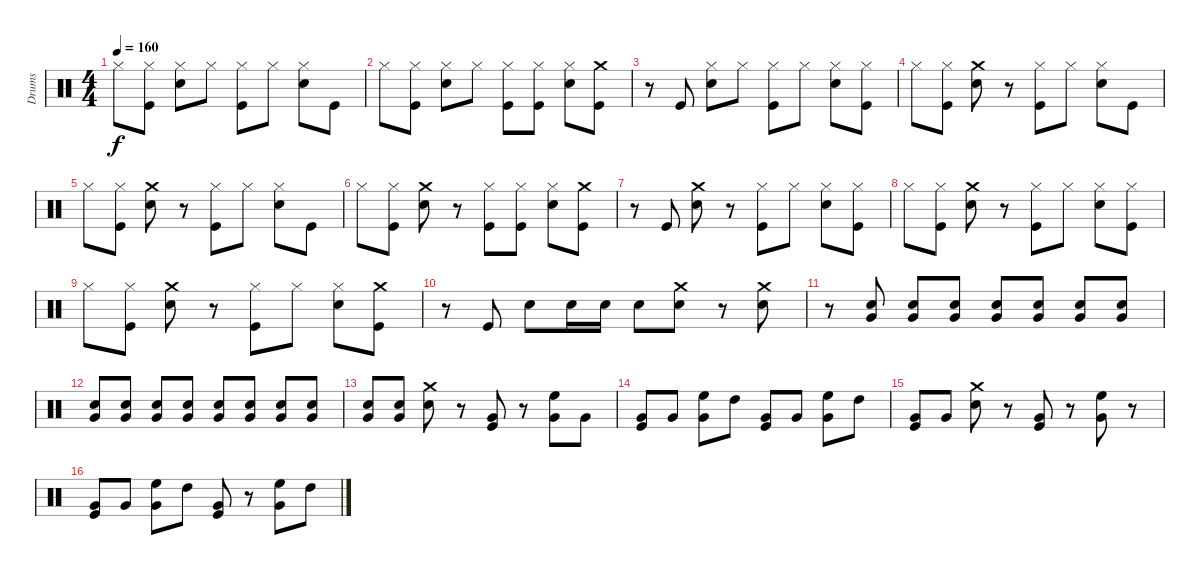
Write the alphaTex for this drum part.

\track ("Drums" "Drums") {instrument percussion}
\staff {score}
\articulation defaults
\ts (4 4)
\tempo 160
\clef neutral
\ks c "Hi-Hat (closed)".8{dy f}
("Kick (hit)" "Hi-Hat (closed)").8 ("Snare (hit) 2" "Hi-Hat (closed)").8 "Hi-Hat (closed)".8 ("Kick (hit)" "Hi-Hat (closed)").8 "Hi-Hat (closed)".8 ("Snare (hit) 2" "Hi-Hat (closed)").8 "Kick (hit)".8 |
"Hi-Hat (closed)".8 ("Kick (hit)" "Hi-Hat (closed)").8 ("Hi-Hat (closed)" "Snare (hit) 2").8 "Hi-Hat (closed)".8 ("Kick (hit)" "Hi-Hat (closed)").8 ("Hi-Hat (closed)" "Kick (hit)").8 ("Hi-Hat (closed)" "Snare (hit) 2").8 ("Crash medium (hit)" "Kick (hit)").8 |
r.8 "Kick (hit)".8 ("Snare (hit) 2" "Hi-Hat (closed)").8 "Hi-Hat (closed)".8 ("Hi-Hat (closed)" "Kick (hit)").8 "Hi-Hat (closed)".8 ("Snare (hit) 2" "Hi-Hat (closed)").8 ("Kick (hit)" "Hi-Hat (closed)").8 |
"Hi-Hat (closed)".8 ("Kick (hit)" "Hi-Hat (closed)").8 ("Crash medium (hit)" "Snare (hit) 2").8 r.8 ("Hi-Hat (closed)" "Kick (hit)").8 "Hi-Hat (closed)".8 ("Snare (hit) 2" "Hi-Hat (closed)").8 "Kick (hit)".8 |
"Hi-Hat (closed)".8 ("Kick (hit)" "Hi-Hat (closed)").8 ("Crash medium (hit)" "Snare (hit) 2").8 r.8 ("Kick (hit)" "Hi-Hat (closed)").8 "Hi-Hat (closed)".8 ("Snare (hit) 2" "Hi-Hat (closed)").8 "Kick (hit)".8 |
"Hi-Hat (closed)".8 ("Kick (hit)" "Hi-Hat (closed)").8 ("Crash medium (hit)" "Snare (hit) 2").8 r.8 ("Hi-Hat (closed)" "Kick (hit)").8 ("Hi-Hat (closed)" "Kick (hit)").8 ("Snare (hit) 2" "Hi-Hat (closed)").8 ("Crash medium (hit)" "Kick (hit)").8 |
r.8 "Kick (hit)".8 ("Crash medium (hit)" "Snare (hit) 2").8 r.8 ("Kick (hit)" "Hi-Hat (closed)").8 "Hi-Hat (closed)".8 ("Snare (hit) 2" "Hi-Hat (closed)").8 ("Hi-Hat (closed)" "Kick (hit)").8 |
"Hi-Hat (closed)".8 ("Kick (hit)" "Hi-Hat (closed)").8 ("Crash medium (hit)" "Snare (hit) 2").8 r.8 ("Hi-Hat (closed)" "Kick (hit)").8 "Hi-Hat (closed)".8 ("Snare (hit) 2" "Hi-Hat (closed)").8 ("Hi-Hat (closed)" "Kick (hit)").8 |
"Hi-Hat (closed)".8 ("Kick (hit)" "Hi-Hat (closed)").8 ("Crash medium (hit)" "Snare (hit) 2").8 r.8 ("Hi-Hat (closed)" "Kick (hit)").8 "Hi-Hat (closed)".8 ("Snare (hit) 2" "Hi-Hat (closed)").8 ("Crash medium (hit)" "Kick (hit)").8 |
r.8 "Kick (hit)".8 "Snare (hit) 2".8 "Snare (hit) 2".16 "Snare (hit) 2".16 "Snare (hit) 2".8 ("Crash medium (hit)" "Snare (hit) 2").8 r.8 ("Crash medium (hit)" "Snare (hit) 2").8 |
r.8 ("Very Low Tom (hit)" "Snare (hit) 2").8 ("Very Low Tom (hit)" "Snare (hit) 2").8 ("Very Low Tom (hit)" "Snare (hit) 2").8 ("Very Low Tom (hit)" "Snare (hit) 2").8 ("Very Low Tom (hit)" "Snare (hit) 2").8 ("Very Low Tom (hit)" "Snare (hit) 2").8 ("Very Low Tom (hit)" "Snare (hit) 2").8 |
("Very Low Tom (hit)" "Snare (hit) 2").8 ("Very Low Tom (hit)" "Snare (hit) 2").8 ("Very Low Tom (hit)" "Snare (hit) 2").8 ("Very Low Tom (hit)" "Snare (hit) 2").8 ("Very Low Tom (hit)" "Snare (hit) 2").8 ("Very Low Tom (hit)" "Snare (hit) 2").8 ("Very Low Tom (hit)" "Snare (hit) 2").8 ("Very Low Tom (hit)" "Snare (hit) 2").8 |
("Very Low Tom (hit)" "Snare (hit) 2").8 ("Snare (hit) 2" "Very Low Tom (hit)").8 ("Crash medium (hit)" "Snare (hit) 2").8 r.8 ("Very Low Tom (hit)" "Kick (hit)").8 r.8 ("High Floor Tom (hit)" "Very Low Tom (hit)").8 "Very Low Tom (hit)".8 |
("Very Low Tom (hit)" "Kick (hit)").8 "Very Low Tom (hit)".8 ("High Floor Tom (hit)" "Very Low Tom (hit)").8 "High Tom (hit)".8 ("Kick (hit)" "Very Low Tom (hit)").8 "Very Low Tom (hit)".8 ("High Floor Tom (hit)" "Very Low Tom (hit)").8 "High Tom (hit)".8 |
("Very Low Tom (hit)" "Kick (hit)").8 "Very Low Tom (hit)".8 ("Crash medium (hit)" "Snare (hit) 2").8 r.8 ("Kick (hit)" "Very Low Tom (hit)").8 r.8 ("High Floor Tom (hit)" "Very Low Tom (hit)").8 r.8 |
("Kick (hit)" "Very Low Tom (hit)").8 "Very Low Tom (hit)".8 ("High Floor Tom (hit)" "Very Low Tom (hit)").8 "High Tom (hit)".8 ("Very Low Tom (hit)" "Kick (hit)").8 r.8 ("High Floor Tom (hit)" "Very Low Tom (hit)").8 "High Tom (hit)".8
